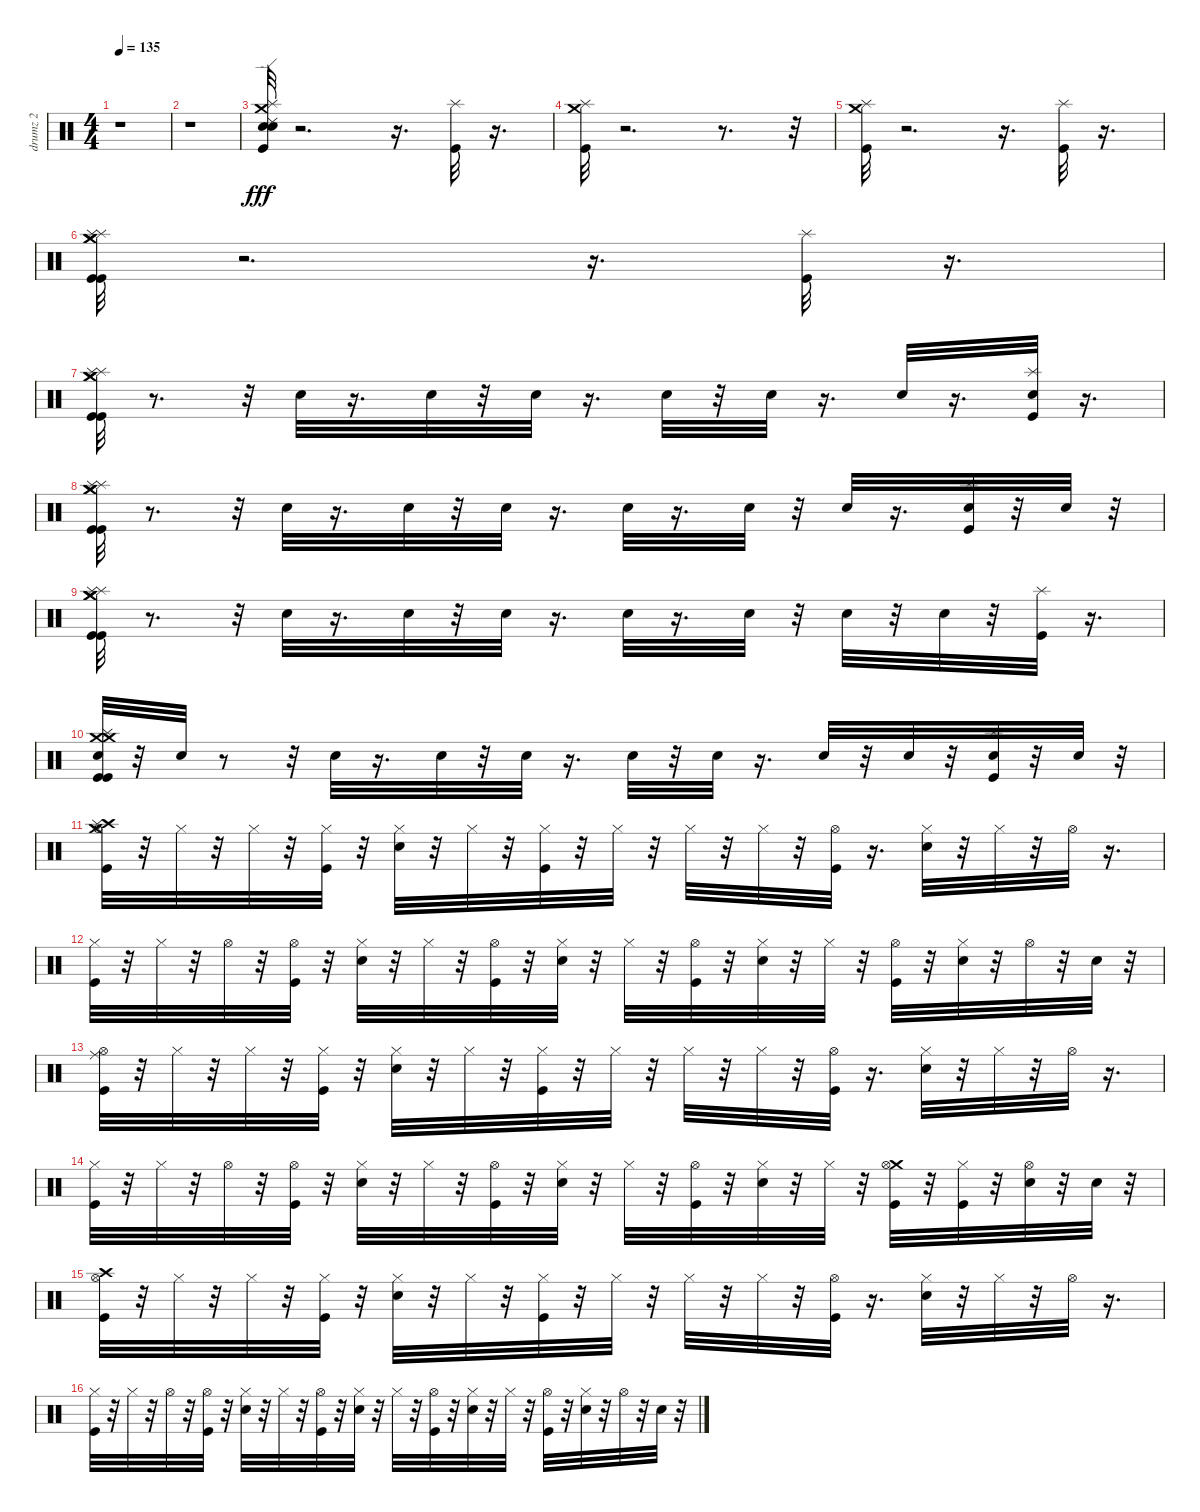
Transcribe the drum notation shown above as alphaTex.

\track ("drumz 2" "drumz 2") {instrument percussion}
\staff {score}
\articulation defaults
\ts (4 4)
\tempo 135
\clef neutral
\ks c
r.1{dy fff} |
r.1 |
("Snare (hit) 2" "Electric Snare (hit)" "Crash medium (hit)" "Ride (edge) 2" "Splash (hit)" "Kick (hit)").32 r.2{d} r.16{d} ("Splash (hit)" "Kick (hit)").32 r.16{d} |
("Crash medium (hit)" "Kick (hit)" "Splash (hit)").32 r.2{d} r.8{d} r.32 |
("Splash (hit)" "Crash medium (hit)" "Kick (hit)").32 r.2{d} r.16{d} ("Kick (hit)" "Splash (hit)").32 r.16{d} |
("Kick (hit)" "Crash medium (hit)" "Crash medium (hit)" "Splash (hit)" "Splash (hit)" "Kick (hit)").32 r.2{d} r.16{d} ("Splash (hit)" "Kick (hit)").32 r.16{d} |
("Splash (hit)" "Crash medium (hit)" "Splash (hit)" "Crash medium (hit)" "Kick (hit)" "Kick (hit)").32 r.8{d} r.32 "Electric Snare (hit)".32 r.16{d} "Snare (hit) 2".32 r.32 "Electric Snare (hit)".32 r.16{d} "Electric Snare (hit)".32 r.32 "Snare (hit) 2".32 r.16{d} "Electric Snare (hit)".32 r.16{d} ("Snare (hit) 2" "Kick (hit)" "Splash (hit)").32 r.16{d} |
("Crash medium (hit)" "Kick (hit)" "Crash medium (hit)" "Splash (hit)" "Kick (hit)" "Splash (hit)").32 r.8{d} r.32 "Electric Snare (hit)".32 r.16{d} "Snare (hit) 2".32 r.32 "Electric Snare (hit)".32 r.16{d} "Electric Snare (hit)".32 r.16{d} "Snare (hit) 2".32 r.32 "Electric Snare (hit)".32 r.16{d} ("Snare (hit) 2" "Splash (hit)" "Kick (hit)").32 r.32 "Electric Snare (hit)".32 r.32 |
("Kick (hit)" "Kick (hit)" "Crash medium (hit)" "Crash medium (hit)" "Splash (hit)" "Splash (hit)").32 r.8{d} r.32 "Electric Snare (hit)".32 r.16{d} "Snare (hit) 2".32 r.32 "Electric Snare (hit)".32 r.16{d} "Electric Snare (hit)".32 r.16{d} "Snare (hit) 2".32 r.32 "Electric Snare (hit)".32 r.32 "Snare (hit) 2".32 r.32 ("Splash (hit)" "Kick (hit)").32 r.16{d} |
("Electric Snare (hit)" "Kick (hit)" "Kick (hit)" "Splash (hit)" "Crash medium (hit)" "Crash medium (hit)").32 r.32 "Electric Snare (hit)".32 r.8 r.32 "Electric Snare (hit)".32 r.16{d} "Snare (hit) 2".32 r.32 "Electric Snare (hit)".32 r.16{d} "Snare (hit) 2".32 r.32 "Electric Snare (hit)".32 r.16{d} "Electric Snare (hit)".32 r.32 "Snare (hit) 2".32 r.32 ("Electric Snare (hit)" "Kick (hit)" "Splash (hit)").32 r.32 "Electric Snare (hit)".32 r.32 |
("Crash high (hit)" "Hi-Hat (open)" "Kick (hit)" "Splash (hit)" "Crash medium (hit)").32 r.32 "Hi-Hat (closed)".32 r.32 "Hi-Hat (closed)".32 r.32 ("Hi-Hat (closed)" "Kick (hit)").32 r.32 ("Hi-Hat (closed)" "Electric Snare (hit)").32 r.32 "Hi-Hat (closed)".32 r.32 ("Hi-Hat (closed)" "Kick (hit)").32 r.32 "Hi-Hat (closed)".32 r.32 "Hi-Hat (closed)".32 r.32 "Hi-Hat (closed)".32 r.32 ("Hi-Hat (open)" "Kick (hit)").32 r.16{d} ("Hi-Hat (closed)" "Electric Snare (hit)").32 r.32 "Hi-Hat (closed)".32 r.32 "Hi-Hat (open)".32 r.16{d} |
("Hi-Hat (closed)" "Kick (hit)").32 r.32 "Hi-Hat (closed)".32 r.32 "Hi-Hat (open)".32 r.32 ("Hi-Hat (open)" "Kick (hit)").32 r.32 ("Hi-Hat (closed)" "Electric Snare (hit)").32 r.32 "Hi-Hat (closed)".32 r.32 ("Hi-Hat (open)" "Kick (hit)").32 r.32 ("Hi-Hat (closed)" "Electric Snare (hit)").32 r.32 "Hi-Hat (closed)".32 r.32 ("Hi-Hat (open)" "Kick (hit)").32 r.32 ("Hi-Hat (closed)" "Electric Snare (hit)").32 r.32 "Hi-Hat (closed)".32 r.32 ("Hi-Hat (open)" "Kick (hit)").32 r.32 ("Hi-Hat (closed)" "Electric Snare (hit)").32 r.32 "Hi-Hat (open)".32 r.32 "Electric Snare (hit)".32 r.32 |
("Ride (middle)" "Hi-Hat (open)" "Kick (hit)").32 r.32 "Hi-Hat (closed)".32 r.32 "Hi-Hat (closed)".32 r.32 ("Hi-Hat (closed)" "Kick (hit)").32 r.32 ("Hi-Hat (closed)" "Electric Snare (hit)").32 r.32 "Hi-Hat (closed)".32 r.32 ("Kick (hit)" "Hi-Hat (closed)").32 r.32 "Hi-Hat (closed)".32 r.32 "Hi-Hat (closed)".32 r.32 "Hi-Hat (closed)".32 r.32 ("Kick (hit)" "Hi-Hat (open)").32 r.16{d} ("Electric Snare (hit)" "Hi-Hat (closed)").32 r.32 "Hi-Hat (closed)".32 r.32 "Hi-Hat (open)".32 r.16{d} |
("Hi-Hat (closed)" "Kick (hit)").32 r.32 "Hi-Hat (closed)".32 r.32 "Hi-Hat (open)".32 r.32 ("Hi-Hat (open)" "Kick (hit)").32 r.32 ("Hi-Hat (closed)" "Electric Snare (hit)").32 r.32 "Hi-Hat (closed)".32 r.32 ("Kick (hit)" "Hi-Hat (open)").32 r.32 ("Electric Snare (hit)" "Hi-Hat (closed)").32 r.32 "Hi-Hat (closed)".32 r.32 ("Hi-Hat (open)" "Kick (hit)").32 r.32 ("Hi-Hat (closed)" "Electric Snare (hit)").32 r.32 "Hi-Hat (closed)".32 r.32 ("Crash medium (hit)" "Hi-Hat (open)" "Kick (hit)").32 r.32 ("Hi-Hat (closed)" "Kick (hit)").32 r.32 ("Hi-Hat (open)" "Electric Snare (hit)").32 r.32 "Electric Snare (hit)".32 r.32 |
("Crash high (hit)" "Hi-Hat (open)" "Kick (hit)").32 r.32 "Hi-Hat (closed)".32 r.32 "Hi-Hat (closed)".32 r.32 ("Hi-Hat (closed)" "Kick (hit)").32 r.32 ("Hi-Hat (closed)" "Electric Snare (hit)").32 r.32 "Hi-Hat (closed)".32 r.32 ("Hi-Hat (closed)" "Kick (hit)").32 r.32 "Hi-Hat (closed)".32 r.32 "Hi-Hat (closed)".32 r.32 "Hi-Hat (closed)".32 r.32 ("Hi-Hat (open)" "Kick (hit)").32 r.16{d} ("Hi-Hat (closed)" "Electric Snare (hit)").32 r.32 "Hi-Hat (closed)".32 r.32 "Hi-Hat (open)".32 r.16{d} |
("Hi-Hat (closed)" "Kick (hit)").32 r.32 "Hi-Hat (closed)".32 r.32 "Hi-Hat (open)".32 r.32 ("Hi-Hat (open)" "Kick (hit)").32 r.32 ("Hi-Hat (closed)" "Electric Snare (hit)").32 r.32 "Hi-Hat (closed)".32 r.32 ("Hi-Hat (open)" "Kick (hit)").32 r.32 ("Hi-Hat (closed)" "Electric Snare (hit)").32 r.32 "Hi-Hat (closed)".32 r.32 ("Hi-Hat (open)" "Kick (hit)").32 r.32 ("Hi-Hat (closed)" "Electric Snare (hit)").32 r.32 "Hi-Hat (closed)".32 r.32 ("Hi-Hat (open)" "Kick (hit)").32 r.32 ("Hi-Hat (closed)" "Electric Snare (hit)").32 r.32 "Hi-Hat (open)".32 r.32 "Electric Snare (hit)".32 r.32
